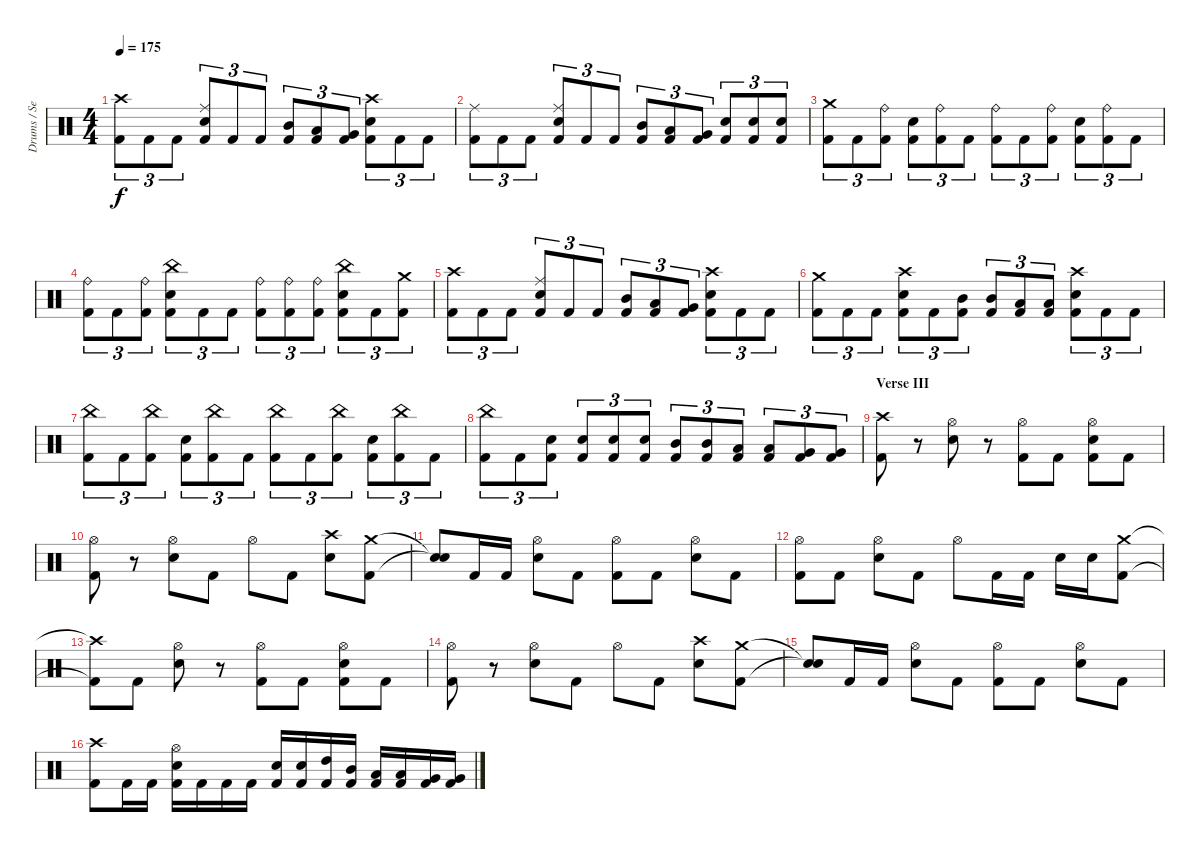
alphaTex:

\track ("Drums / Sean" "Drums / Se") {instrument percussion}
\staff {score}
\articulation defaults
\ts (4 4)
\tempo 175
\clef neutral
\ks c
("Crash high (hit)" "Kick (hit) 2").8{tu (3 2) dy f} "Kick (hit) 2".8{tu (3 2)} "Kick (hit) 2".8{tu (3 2)} ("Ride (middle)" "Electric Snare (hit)" "Kick (hit) 2").8{tu (3 2)} "Kick (hit) 2".8{tu (3 2)} "Kick (hit) 2".8{tu (3 2)} ("Mid Tom (hit)" "Kick (hit) 2").8{tu (3 2)} ("Low Tom (hit)" "Kick (hit) 2").8{tu (3 2)} ("Very Low Tom (hit)" "Kick (hit) 2").8{tu (3 2)} ("Crash high (hit)" "Electric Snare (hit)" "Kick (hit) 2").8{tu (3 2)} "Kick (hit) 2".8{tu (3 2)} "Kick (hit) 2".8{tu (3 2)} |
("Ride (middle)" "Kick (hit) 2").8{tu (3 2)} "Kick (hit) 2".8{tu (3 2)} "Kick (hit) 2".8{tu (3 2)} ("Ride (middle)" "Electric Snare (hit)" "Kick (hit) 2").8{tu (3 2)} "Kick (hit) 2".8{tu (3 2)} "Kick (hit) 2".8{tu (3 2)} ("Mid Tom (hit)" "Kick (hit) 2").8{tu (3 2)} ("Low Tom (hit)" "Kick (hit) 2").8{tu (3 2)} ("Very Low Tom (hit)" "Kick (hit) 2").8{tu (3 2)} ("Electric Snare (hit)" "Kick (hit) 2").8{tu (3 2)} ("Electric Snare (hit)" "Kick (hit) 2").8{tu (3 2)} ("Electric Snare (hit)" "Kick (hit) 2").8{tu (3 2)} |
("Crash medium (hit)" "Kick (hit) 2").8{tu (3 2)} "Kick (hit) 2".8{tu (3 2)} ("Ride (bell)" "Kick (hit) 2").8{tu (3 2)} ("Electric Snare (hit)" "Kick (hit) 2").8{tu (3 2)} ("Ride (bell)" "Kick (hit) 2").8{tu (3 2)} "Kick (hit) 2".8{tu (3 2)} ("Ride (bell)" "Kick (hit) 2").8{tu (3 2)} "Kick (hit) 2".8{tu (3 2)} ("Ride (bell)" "Kick (hit) 2").8{tu (3 2)} ("Electric Snare (hit)" "Kick (hit) 2").8{tu (3 2)} ("Ride (bell)" "Kick (hit) 2").8{tu (3 2)} "Kick (hit) 2".8{tu (3 2)} |
("Ride (bell)" "Kick (hit) 2").8{tu (3 2)} "Kick (hit) 2".8{tu (3 2)} ("Ride (bell)" "Kick (hit) 2").8{tu (3 2)} ("China (hit)" "Electric Snare (hit)" "Kick (hit) 2").8{tu (3 2)} "Kick (hit) 2".8{tu (3 2)} "Kick (hit) 2".8{tu (3 2)} ("Ride (bell)" "Kick (hit) 2").8{tu (3 2)} ("Ride (bell)" "Kick (hit) 2").8{tu (3 2)} ("Ride (bell)" "Kick (hit) 2").8{tu (3 2)} ("China (hit)" "Electric Snare (hit)" "Kick (hit) 2").8{tu (3 2)} "Kick (hit) 2".8{tu (3 2)} ("Crash medium (hit)" "Kick (hit) 2").8{tu (3 2)} |
("Crash high (hit)" "Kick (hit) 2").8{tu (3 2)} "Kick (hit) 2".8{tu (3 2)} "Kick (hit) 2".8{tu (3 2)} ("Ride (middle)" "Electric Snare (hit)" "Kick (hit) 2").8{tu (3 2)} "Kick (hit) 2".8{tu (3 2)} "Kick (hit) 2".8{tu (3 2)} ("Mid Tom (hit)" "Kick (hit) 2").8{tu (3 2)} ("Low Tom (hit)" "Kick (hit) 2").8{tu (3 2)} ("Very Low Tom (hit)" "Kick (hit) 2").8{tu (3 2)} ("Crash high (hit)" "Electric Snare (hit)" "Kick (hit) 2").8{tu (3 2)} "Kick (hit) 2".8{tu (3 2)} "Kick (hit) 2".8{tu (3 2)} |
("Crash medium (hit)" "Kick (hit) 2").8{tu (3 2)} "Kick (hit) 2".8{tu (3 2)} "Kick (hit) 2".8{tu (3 2)} ("Crash high (hit)" "Electric Snare (hit)" "Kick (hit) 2").8{tu (3 2)} "Kick (hit) 2".8{tu (3 2)} ("Mid Tom (hit)" "Kick (hit) 2").8{tu (3 2)} ("Mid Tom (hit)" "Kick (hit) 2").8{tu (3 2)} ("Low Tom (hit)" "Kick (hit) 2").8{tu (3 2)} ("Low Tom (hit)" "Kick (hit) 2").8{tu (3 2)} ("Crash high (hit)" "Electric Snare (hit)" "Kick (hit) 2").8{tu (3 2)} "Kick (hit) 2".8{tu (3 2)} "Kick (hit) 2".8{tu (3 2)} |
("China (hit)" "Kick (hit) 2").8{tu (3 2)} "Kick (hit) 2".8{tu (3 2)} ("China (hit)" "Kick (hit) 2").8{tu (3 2)} ("Electric Snare (hit)" "Kick (hit) 2").8{tu (3 2)} ("China (hit)" "Kick (hit) 2").8{tu (3 2)} "Kick (hit) 2".8{tu (3 2)} ("China (hit)" "Kick (hit) 2").8{tu (3 2)} "Kick (hit) 2".8{tu (3 2)} ("China (hit)" "Kick (hit) 2").8{tu (3 2)} ("Electric Snare (hit)" "Kick (hit) 2").8{tu (3 2)} ("China (hit)" "Kick (hit) 2").8{tu (3 2)} "Kick (hit) 2".8{tu (3 2)} |
("China (hit)" "Kick (hit) 2").8{tu (3 2)} "Kick (hit) 2".8{tu (3 2)} ("Electric Snare (hit)" "Kick (hit) 2").8{tu (3 2)} ("Electric Snare (hit)" "Kick (hit) 2").8{tu (3 2)} ("Electric Snare (hit)" "Kick (hit) 2").8{tu (3 2)} ("Electric Snare (hit)" "Kick (hit) 2").8{tu (3 2)} ("Mid Tom (hit)" "Kick (hit) 2").8{tu (3 2)} ("Mid Tom (hit)" "Kick (hit) 2").8{tu (3 2)} ("Low Tom (hit)" "Kick (hit) 2").8{tu (3 2)} ("Low Tom (hit)" "Kick (hit) 2").8{tu (3 2)} ("Very Low Tom (hit)" "Kick (hit) 2").8{tu (3 2)} ("Very Low Tom (hit)" "Kick (hit) 2").8{tu (3 2)} |
\section ("" "Verse III")
("Crash high (hit)" "Kick (hit) 2").8 r.8 ("Hi-Hat (open)" "Electric Snare (hit)").8 r.8 ("Hi-Hat (open)" "Kick (hit) 2").8 "Kick (hit) 2".8 ("Hi-Hat (open)" "Electric Snare (hit)" "Kick (hit) 2").8 "Kick (hit) 2".8 |
("Hi-Hat (open)" "Kick (hit) 2").8 r.8 ("Hi-Hat (open)" "Electric Snare (hit)").8 "Kick (hit) 2".8 "Hi-Hat (open)".8 "Kick (hit) 2".8 ("Crash high (hit)" "Electric Snare (hit)").8 ("Crash medium (hit)" "Kick (hit) 2").8 |
("Snare (hit)"{t} "Snare (hit)"{t}).8 "Kick (hit) 2".16 "Kick (hit) 2".16 ("Hi-Hat (open)" "Electric Snare (hit)").8 "Kick (hit) 2".8 ("Hi-Hat (open)" "Kick (hit) 2").8 "Kick (hit) 2".8 ("Hi-Hat (open)" "Electric Snare (hit)").8 "Kick (hit) 2".8 |
("Hi-Hat (open)" "Kick (hit) 2").8 "Kick (hit) 2".8 ("Hi-Hat (open)" "Electric Snare (hit)").8 "Kick (hit) 2".8 "Hi-Hat (open)".8 "Kick (hit) 2".16 "Kick (hit) 2".16 "Electric Snare (hit)".16 "Electric Snare (hit)".16 ("Crash medium (hit)" "Kick (hit) 2").8 |
("Crash high (hit)"{t} "Kick (hit) 2"{t}).8 "Kick (hit) 2".8 ("Hi-Hat (open)" "Electric Snare (hit)").8 r.8 ("Hi-Hat (open)" "Kick (hit) 2").8 "Kick (hit) 2".8 ("Hi-Hat (open)" "Electric Snare (hit)" "Kick (hit) 2").8 "Kick (hit) 2".8 |
("Hi-Hat (open)" "Kick (hit) 2").8 r.8 ("Hi-Hat (open)" "Electric Snare (hit)").8 "Kick (hit) 2".8 "Hi-Hat (open)".8 "Kick (hit) 2".8 ("Crash high (hit)" "Electric Snare (hit)").8 ("Crash medium (hit)" "Kick (hit) 2").8 |
("Snare (hit)"{t} "Snare (hit)"{t}).8 "Kick (hit) 2".16 "Kick (hit) 2".16 ("Hi-Hat (open)" "Electric Snare (hit)").8 "Kick (hit) 2".8 ("Hi-Hat (open)" "Kick (hit) 2").8 "Kick (hit) 2".8 ("Hi-Hat (open)" "Electric Snare (hit)").8 "Kick (hit) 2".8 |
("Crash high (hit)" "Kick (hit) 2").8 "Kick (hit) 2".16 "Kick (hit) 2".16 ("Hi-Hat (open)" "Electric Snare (hit)" "Kick (hit) 2").16 "Kick (hit) 2".16 "Kick (hit) 2".16 "Kick (hit) 2".16 ("Electric Snare (hit)" "Kick (hit) 2").16 ("Electric Snare (hit)" "Kick (hit) 2").16 ("High Tom (hit)" "Kick (hit) 2").16 ("Mid Tom (hit)" "Kick (hit) 2").16 ("Low Tom (hit)" "Kick (hit) 2").16 ("Low Tom (hit)" "Kick (hit) 2").16 ("Very Low Tom (hit)" "Kick (hit) 2").16 ("Very Low Tom (hit)" "Kick (hit) 2").16
